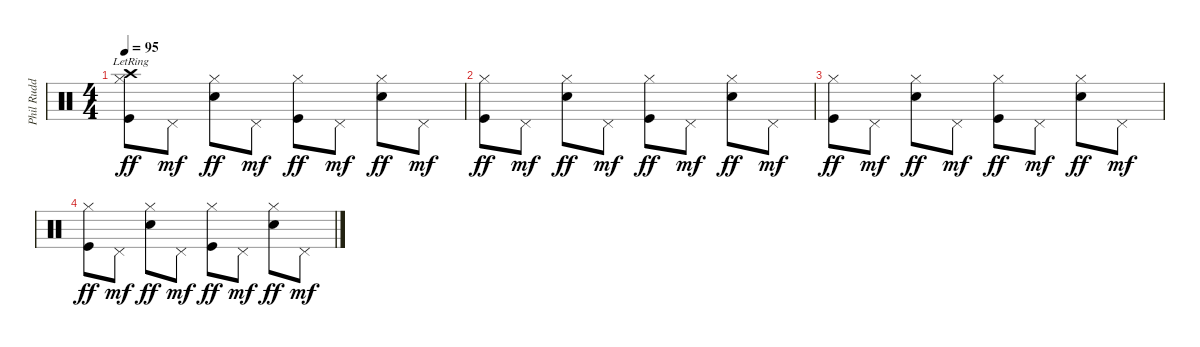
\track ("Phil Rudd" "Phil Rudd") {instrument percussion}
\staff {score}
\articulation defaults
\ts (4 4)
\tempo 95
\clef neutral
\ks c
("Crash high (hit)"{lr} "Hi-Hat (closed)" "Kick (hit)").8{dy ff volume 7} "Pedal Hi-Hat (hit)".8{dy mf} ("Hi-Hat (closed)" "Snare (hit) 2").8{dy ff} "Pedal Hi-Hat (hit)".8{dy mf} ("Hi-Hat (closed)" "Kick (hit)").8{dy ff} "Pedal Hi-Hat (hit)".8{dy mf} ("Hi-Hat (closed)" "Snare (hit) 2").8{dy ff} "Pedal Hi-Hat (hit)".8{dy mf} |
("Hi-Hat (closed)" "Kick (hit)").8{dy ff} "Pedal Hi-Hat (hit)".8{dy mf} ("Hi-Hat (closed)" "Snare (hit) 2").8{dy ff} "Pedal Hi-Hat (hit)".8{dy mf} ("Hi-Hat (closed)" "Kick (hit)").8{dy ff} "Pedal Hi-Hat (hit)".8{dy mf} ("Hi-Hat (closed)" "Snare (hit) 2").8{dy ff} "Pedal Hi-Hat (hit)".8{dy mf} |
("Hi-Hat (closed)" "Kick (hit)").8{dy ff volume 0} "Pedal Hi-Hat (hit)".8{dy mf} ("Hi-Hat (closed)" "Snare (hit) 2").8{dy ff} "Pedal Hi-Hat (hit)".8{dy mf} ("Hi-Hat (closed)" "Kick (hit)").8{dy ff} "Pedal Hi-Hat (hit)".8{dy mf} ("Hi-Hat (closed)" "Snare (hit) 2").8{dy ff} "Pedal Hi-Hat (hit)".8{dy mf} |
("Hi-Hat (closed)" "Kick (hit)").8{dy ff} "Pedal Hi-Hat (hit)".8{dy mf} ("Hi-Hat (closed)" "Snare (hit) 2").8{dy ff} "Pedal Hi-Hat (hit)".8{dy mf} ("Hi-Hat (closed)" "Kick (hit)").8{dy ff} "Pedal Hi-Hat (hit)".8{dy mf} ("Hi-Hat (closed)" "Snare (hit) 2").8{dy ff} "Pedal Hi-Hat (hit)".8{dy mf}
